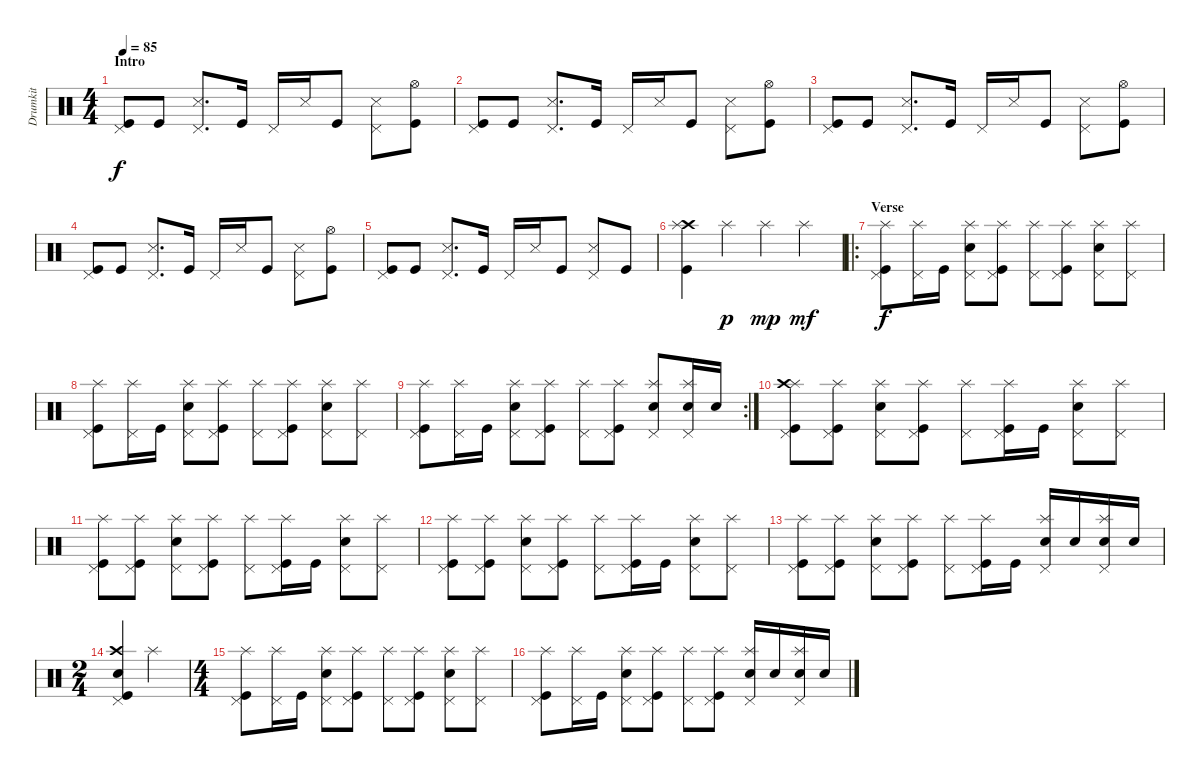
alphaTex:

\track ("Drumkit" "Drumkit") {instrument percussion}
\staff {score}
\articulation defaults
\ts (4 4)
\section ("" "Intro")
\tempo 85
\clef neutral
\ks c
("Kick (hit)" "Pedal Hi-Hat (hit)").8{dy f} "Kick (hit)".8 ("Snare (side stick) 3" "Pedal Hi-Hat (hit)").8{d} "Kick (hit)".16 "Pedal Hi-Hat (hit)".16 "Snare (side stick) 3".16 "Kick (hit)".8 ("Snare (side stick) 3" "Pedal Hi-Hat (hit)").8 ("Kick (hit)" "Hi-Hat (open)").8 |
("Kick (hit)" "Pedal Hi-Hat (hit)").8 "Kick (hit)".8 ("Snare (side stick) 3" "Pedal Hi-Hat (hit)").8{d} "Kick (hit)".16 "Pedal Hi-Hat (hit)".16 "Snare (side stick) 3".16 "Kick (hit)".8 ("Snare (side stick) 3" "Pedal Hi-Hat (hit)").8 ("Kick (hit)" "Hi-Hat (open)").8 |
("Kick (hit)" "Pedal Hi-Hat (hit)").8 "Kick (hit)".8 ("Snare (side stick) 3" "Pedal Hi-Hat (hit)").8{d} "Kick (hit)".16 "Pedal Hi-Hat (hit)".16 "Snare (side stick) 3".16 "Kick (hit)".8 ("Snare (side stick) 3" "Pedal Hi-Hat (hit)").8 ("Kick (hit)" "Hi-Hat (open)").8 |
("Kick (hit)" "Pedal Hi-Hat (hit)").8 "Kick (hit)".8 ("Snare (side stick) 3" "Pedal Hi-Hat (hit)").8{d} "Kick (hit)".16 "Pedal Hi-Hat (hit)".16 "Snare (side stick) 3".16 "Kick (hit)".8 ("Snare (side stick) 3" "Pedal Hi-Hat (hit)").8 ("Kick (hit)" "Hi-Hat (open)").8 |
("Kick (hit)" "Pedal Hi-Hat (hit)").8 "Kick (hit)".8 ("Snare (side stick) 3" "Pedal Hi-Hat (hit)").8{d} "Kick (hit)".16 "Pedal Hi-Hat (hit)".16 "Snare (side stick) 3".16 "Kick (hit)".8 ("Snare (side stick) 3" "Pedal Hi-Hat (hit)").8 "Kick (hit)".8 |
("Kick (hit)" "Crash high (hit)" "Splash (hit)").4 "Splash (hit)".4{dy p} "Splash (hit)".4{dy mp} "Splash (hit)".4{dy mf} |
\ro
\section ("" "Verse")
("Pedal Hi-Hat (hit)" "Splash (hit)" "Kick (hit)").8{dy f} ("Pedal Hi-Hat (hit)" "Splash (hit)").16 "Kick (hit)".16 ("Pedal Hi-Hat (hit)" "Splash (hit)" "Snare (hit) 2").8 ("Pedal Hi-Hat (hit)" "Splash (hit)" "Kick (hit)").8 ("Pedal Hi-Hat (hit)" "Splash (hit)").8 ("Pedal Hi-Hat (hit)" "Splash (hit)" "Kick (hit)").8 ("Pedal Hi-Hat (hit)" "Splash (hit)" "Snare (hit) 2").8 ("Pedal Hi-Hat (hit)" "Splash (hit)").8 |
("Pedal Hi-Hat (hit)" "Splash (hit)" "Kick (hit)").8 ("Pedal Hi-Hat (hit)" "Splash (hit)").16 "Kick (hit)".16 ("Pedal Hi-Hat (hit)" "Splash (hit)" "Snare (hit) 2").8 ("Pedal Hi-Hat (hit)" "Splash (hit)" "Kick (hit)").8 ("Pedal Hi-Hat (hit)" "Splash (hit)").8 ("Pedal Hi-Hat (hit)" "Splash (hit)" "Kick (hit)").8 ("Pedal Hi-Hat (hit)" "Splash (hit)" "Snare (hit) 2").8 ("Pedal Hi-Hat (hit)" "Splash (hit)").8 |
\rc 2
("Pedal Hi-Hat (hit)" "Splash (hit)" "Kick (hit)").8 ("Pedal Hi-Hat (hit)" "Splash (hit)").16 "Kick (hit)".16 ("Pedal Hi-Hat (hit)" "Splash (hit)" "Snare (hit) 2").8 ("Pedal Hi-Hat (hit)" "Splash (hit)" "Kick (hit)").8 ("Pedal Hi-Hat (hit)" "Splash (hit)").8 ("Pedal Hi-Hat (hit)" "Splash (hit)" "Kick (hit)").8 ("Pedal Hi-Hat (hit)" "Splash (hit)" "Snare (hit) 2").8 ("Pedal Hi-Hat (hit)" "Splash (hit)" "Snare (hit) 2").16 "Snare (hit) 2".16 |
("Pedal Hi-Hat (hit)" "Splash (hit)" "Crash high (hit)" "Kick (hit)").8 ("Pedal Hi-Hat (hit)" "Splash (hit)" "Kick (hit)").8 ("Pedal Hi-Hat (hit)" "Splash (hit)" "Snare (hit) 2").8 ("Pedal Hi-Hat (hit)" "Splash (hit)" "Kick (hit)").8 ("Pedal Hi-Hat (hit)" "Splash (hit)").8 ("Pedal Hi-Hat (hit)" "Splash (hit)" "Kick (hit)").16 "Kick (hit)".16 ("Pedal Hi-Hat (hit)" "Splash (hit)" "Snare (hit) 2").8 ("Pedal Hi-Hat (hit)" "Splash (hit)").8 |
("Pedal Hi-Hat (hit)" "Splash (hit)" "Kick (hit)").8 ("Pedal Hi-Hat (hit)" "Splash (hit)" "Kick (hit)").8 ("Pedal Hi-Hat (hit)" "Splash (hit)" "Snare (hit) 2").8 ("Pedal Hi-Hat (hit)" "Splash (hit)" "Kick (hit)").8 ("Pedal Hi-Hat (hit)" "Splash (hit)").8 ("Pedal Hi-Hat (hit)" "Splash (hit)" "Kick (hit)").16 "Kick (hit)".16 ("Pedal Hi-Hat (hit)" "Splash (hit)" "Snare (hit) 2").8 ("Pedal Hi-Hat (hit)" "Splash (hit)").8 |
("Pedal Hi-Hat (hit)" "Splash (hit)" "Kick (hit)").8 ("Pedal Hi-Hat (hit)" "Splash (hit)" "Kick (hit)").8 ("Pedal Hi-Hat (hit)" "Splash (hit)" "Snare (hit) 2").8 ("Pedal Hi-Hat (hit)" "Splash (hit)" "Kick (hit)").8 ("Pedal Hi-Hat (hit)" "Splash (hit)").8 ("Pedal Hi-Hat (hit)" "Splash (hit)" "Kick (hit)").16 "Kick (hit)".16 ("Pedal Hi-Hat (hit)" "Splash (hit)" "Snare (hit) 2").8 ("Pedal Hi-Hat (hit)" "Splash (hit)").8 |
("Pedal Hi-Hat (hit)" "Splash (hit)" "Kick (hit)").8 ("Pedal Hi-Hat (hit)" "Splash (hit)" "Kick (hit)").8 ("Pedal Hi-Hat (hit)" "Splash (hit)" "Snare (hit) 2").8 ("Pedal Hi-Hat (hit)" "Splash (hit)" "Kick (hit)").8 ("Pedal Hi-Hat (hit)" "Splash (hit)").8 ("Pedal Hi-Hat (hit)" "Splash (hit)" "Kick (hit)").16 "Kick (hit)".16 ("Pedal Hi-Hat (hit)" "Splash (hit)" "Snare (hit) 2").16 "Snare (hit) 2".16 ("Pedal Hi-Hat (hit)" "Splash (hit)" "Snare (hit) 2").16 "Snare (hit) 2".16 |
\ts (2 4)
("Pedal Hi-Hat (hit)" "Crash high (hit)" "Snare (hit) 2" "Kick (hit)").4 "Splash (hit)".4 |
\ts (4 4)
("Pedal Hi-Hat (hit)" "Splash (hit)" "Kick (hit)").8 ("Pedal Hi-Hat (hit)" "Splash (hit)").16 "Kick (hit)".16 ("Pedal Hi-Hat (hit)" "Splash (hit)" "Snare (hit) 2").8 ("Pedal Hi-Hat (hit)" "Splash (hit)" "Kick (hit)").8 ("Pedal Hi-Hat (hit)" "Splash (hit)").8 ("Pedal Hi-Hat (hit)" "Splash (hit)" "Kick (hit)").8 ("Pedal Hi-Hat (hit)" "Splash (hit)" "Snare (hit) 2").8 ("Pedal Hi-Hat (hit)" "Splash (hit)").8 |
("Pedal Hi-Hat (hit)" "Splash (hit)" "Kick (hit)").8 ("Pedal Hi-Hat (hit)" "Splash (hit)").16 "Kick (hit)".16 ("Pedal Hi-Hat (hit)" "Splash (hit)" "Snare (hit) 2").8 ("Pedal Hi-Hat (hit)" "Splash (hit)" "Kick (hit)").8 ("Pedal Hi-Hat (hit)" "Splash (hit)").8 ("Pedal Hi-Hat (hit)" "Splash (hit)" "Kick (hit)").8 ("Pedal Hi-Hat (hit)" "Splash (hit)" "Snare (hit) 2").16 "Snare (hit) 2".16 ("Pedal Hi-Hat (hit)" "Splash (hit)" "Snare (hit) 2").16 "Snare (hit) 2".16
